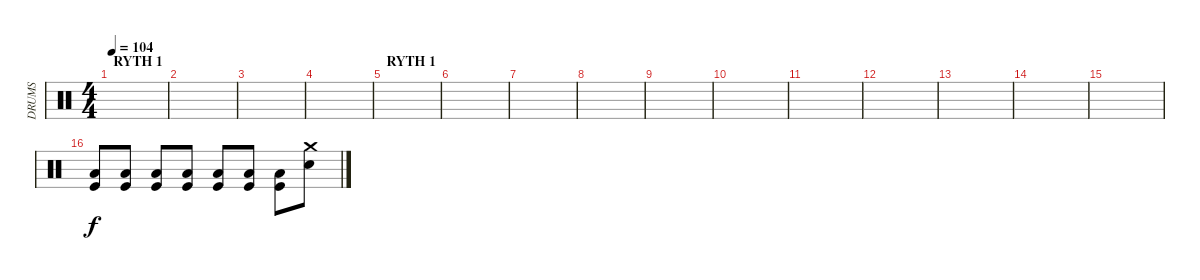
\track ("DRUMS" "DRUMS") {instrument percussion}
\staff {score}
\articulation defaults
\ts (4 4)
\section ("" "RYTH 1")
\tempo 104
\clef neutral
\ks c
|
|
|
|
\section ("" "RYTH 1")
|
|
|
|
|
|
|
|
|
|
|
("Kick (hit)" "Low Floor Tom (hit)").8{volume 7} ("Kick (hit)" "Low Floor Tom (hit)").8 ("Kick (hit)" "Low Floor Tom (hit)").8{volume 11} ("Kick (hit)" "Low Floor Tom (hit)").8 ("Kick (hit)" "Low Floor Tom (hit)").8{volume 16} ("Kick (hit)" "Low Floor Tom (hit)").8 ("Kick (hit)" "Low Floor Tom (hit)").8 ("Snare (hit) 2" "Crash medium (hit)").8
